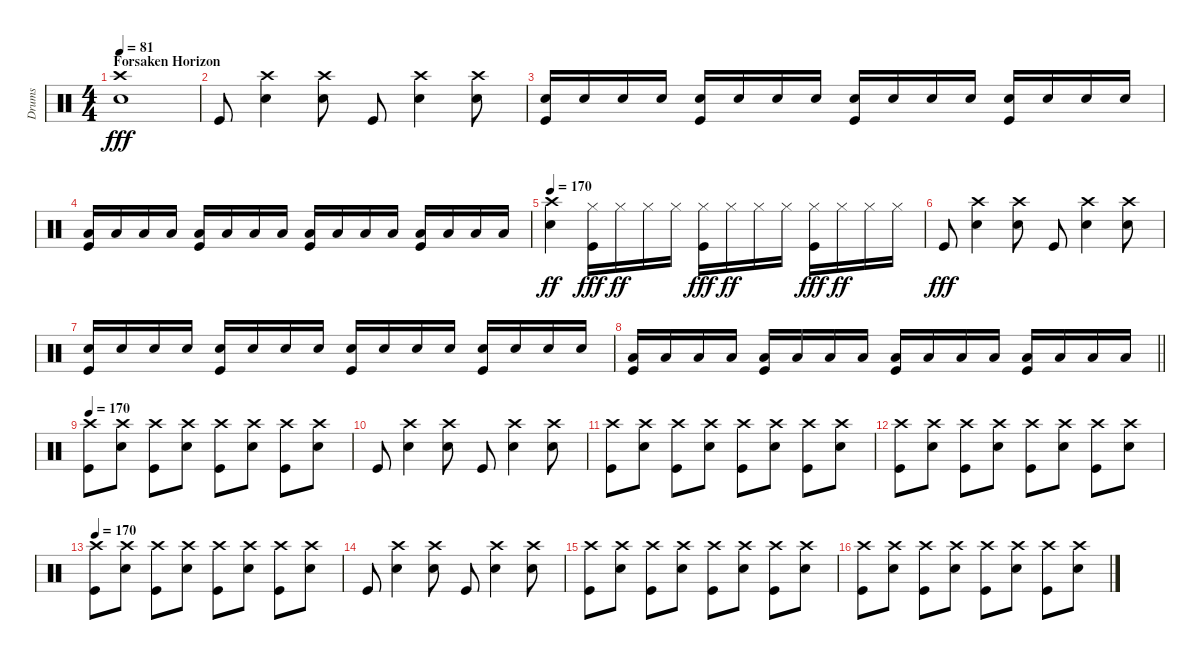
\track ("Drums" "Drums") {instrument percussion}
\staff {score}
\articulation defaults
\ts (4 4)
\section ("" "Forsaken Horizon")
\tempo 81
\tempo 170
\tempo 81
\clef neutral
\ks c
("Snare (hit) 2" "Crash high (hit)").1{dy fff} |
"Kick (hit)".8 ("Snare (hit) 2" "Crash high (hit)").4 ("Snare (hit) 2" "Crash high (hit)").8 "Kick (hit)".8 ("Snare (hit) 2" "Crash high (hit)").4 ("Snare (hit) 2" "Crash high (hit)").8 |
("Snare (hit) 2" "Kick (hit)").16 "Snare (hit) 2".16 "Snare (hit) 2".16 "Snare (hit) 2".16 ("Snare (hit) 2" "Kick (hit)").16 "Snare (hit) 2".16 "Snare (hit) 2".16 "Snare (hit) 2".16 ("Snare (hit) 2" "Kick (hit)").16 "Snare (hit) 2".16 "Snare (hit) 2".16 "Snare (hit) 2".16 ("Snare (hit) 2" "Kick (hit)").16 "Snare (hit) 2".16 "Snare (hit) 2".16 "Snare (hit) 2".16 |
("Low Tom (hit)" "Kick (hit)").16 "Low Tom (hit)".16 "Low Tom (hit)".16 "Low Tom (hit)".16 ("Low Tom (hit)" "Kick (hit)").16 "Low Tom (hit)".16 "Low Tom (hit)".16 "Low Tom (hit)".16 ("Low Tom (hit)" "Kick (hit)").16 "Low Tom (hit)".16 "Low Tom (hit)".16 "Low Tom (hit)".16 ("Low Tom (hit)" "Kick (hit)").16 "Low Tom (hit)".16 "Low Tom (hit)".16 "Low Tom (hit)".16 |
\tempo 170
("Snare (hit) 2" "Crash high (hit)").4{dy ff} ("Hi-Hat (closed)" "Kick (hit)").16{dy fff} "Hi-Hat (closed)".16{dy ff} "Hi-Hat (closed)".16 "Hi-Hat (closed)".16 ("Hi-Hat (closed)" "Kick (hit)").16{dy fff} "Hi-Hat (closed)".16{dy ff} "Hi-Hat (closed)".16 "Hi-Hat (closed)".16 ("Hi-Hat (closed)" "Kick (hit)").16{dy fff} "Hi-Hat (closed)".16{dy ff} "Hi-Hat (closed)".16 "Hi-Hat (closed)".16 |
"Kick (hit)".8{dy fff} ("Snare (hit) 2" "Crash high (hit)").4 ("Snare (hit) 2" "Crash high (hit)").8 "Kick (hit)".8 ("Snare (hit) 2" "Crash high (hit)").4 ("Snare (hit) 2" "Crash high (hit)").8 |
("Snare (hit) 2" "Kick (hit)").16 "Snare (hit) 2".16 "Snare (hit) 2".16 "Snare (hit) 2".16 ("Snare (hit) 2" "Kick (hit)").16 "Snare (hit) 2".16 "Snare (hit) 2".16 "Snare (hit) 2".16 ("Snare (hit) 2" "Kick (hit)").16 "Snare (hit) 2".16 "Snare (hit) 2".16 "Snare (hit) 2".16 ("Snare (hit) 2" "Kick (hit)").16 "Snare (hit) 2".16 "Snare (hit) 2".16 "Snare (hit) 2".16 |
\barLineRight lightlight
("Low Tom (hit)" "Kick (hit)").16 "Low Tom (hit)".16 "Low Tom (hit)".16 "Low Tom (hit)".16 ("Low Tom (hit)" "Kick (hit)").16 "Low Tom (hit)".16 "Low Tom (hit)".16 "Low Tom (hit)".16 ("Low Tom (hit)" "Kick (hit)").16 "Low Tom (hit)".16 "Low Tom (hit)".16 "Low Tom (hit)".16 ("Low Tom (hit)" "Kick (hit)").16 "Low Tom (hit)".16 "Low Tom (hit)".16 "Low Tom (hit)".16 |
\tempo 170
("Kick (hit)" "Crash high (hit)").8 ("Snare (hit) 2" "Crash high (hit)").8 ("Kick (hit)" "Crash high (hit)").8 ("Snare (hit) 2" "Crash high (hit)").8 ("Kick (hit)" "Crash high (hit)").8 ("Snare (hit) 2" "Crash high (hit)").8 ("Kick (hit)" "Crash high (hit)").8 ("Snare (hit) 2" "Crash high (hit)").8 |
"Kick (hit)".8 ("Snare (hit) 2" "Crash high (hit)").4 ("Snare (hit) 2" "Crash high (hit)").8 "Kick (hit)".8 ("Snare (hit) 2" "Crash high (hit)").4 ("Snare (hit) 2" "Crash high (hit)").8 |
("Kick (hit)" "Crash high (hit)").8 ("Snare (hit) 2" "Crash high (hit)").8 ("Kick (hit)" "Crash high (hit)").8 ("Snare (hit) 2" "Crash high (hit)").8 ("Kick (hit)" "Crash high (hit)").8 ("Snare (hit) 2" "Crash high (hit)").8 ("Kick (hit)" "Crash high (hit)").8 ("Snare (hit) 2" "Crash high (hit)").8 |
("Kick (hit)" "Crash high (hit)").8 ("Snare (hit) 2" "Crash high (hit)").8 ("Kick (hit)" "Crash high (hit)").8 ("Snare (hit) 2" "Crash high (hit)").8 ("Kick (hit)" "Crash high (hit)").8 ("Snare (hit) 2" "Crash high (hit)").8 ("Kick (hit)" "Crash high (hit)").8 ("Snare (hit) 2" "Crash high (hit)").8 |
\tempo 170
("Kick (hit)" "Crash high (hit)").8 ("Snare (hit) 2" "Crash high (hit)").8 ("Kick (hit)" "Crash high (hit)").8 ("Snare (hit) 2" "Crash high (hit)").8 ("Kick (hit)" "Crash high (hit)").8 ("Snare (hit) 2" "Crash high (hit)").8 ("Kick (hit)" "Crash high (hit)").8 ("Snare (hit) 2" "Crash high (hit)").8 |
"Kick (hit)".8 ("Snare (hit) 2" "Crash high (hit)").4 ("Snare (hit) 2" "Crash high (hit)").8 "Kick (hit)".8 ("Snare (hit) 2" "Crash high (hit)").4 ("Snare (hit) 2" "Crash high (hit)").8 |
("Kick (hit)" "Crash high (hit)").8 ("Snare (hit) 2" "Crash high (hit)").8 ("Kick (hit)" "Crash high (hit)").8 ("Snare (hit) 2" "Crash high (hit)").8 ("Kick (hit)" "Crash high (hit)").8 ("Snare (hit) 2" "Crash high (hit)").8 ("Kick (hit)" "Crash high (hit)").8 ("Snare (hit) 2" "Crash high (hit)").8 |
("Kick (hit)" "Crash high (hit)").8 ("Snare (hit) 2" "Crash high (hit)").8 ("Kick (hit)" "Crash high (hit)").8 ("Snare (hit) 2" "Crash high (hit)").8 ("Kick (hit)" "Crash high (hit)").8 ("Snare (hit) 2" "Crash high (hit)").8 ("Kick (hit)" "Crash high (hit)").8 ("Snare (hit) 2" "Crash high (hit)").8
